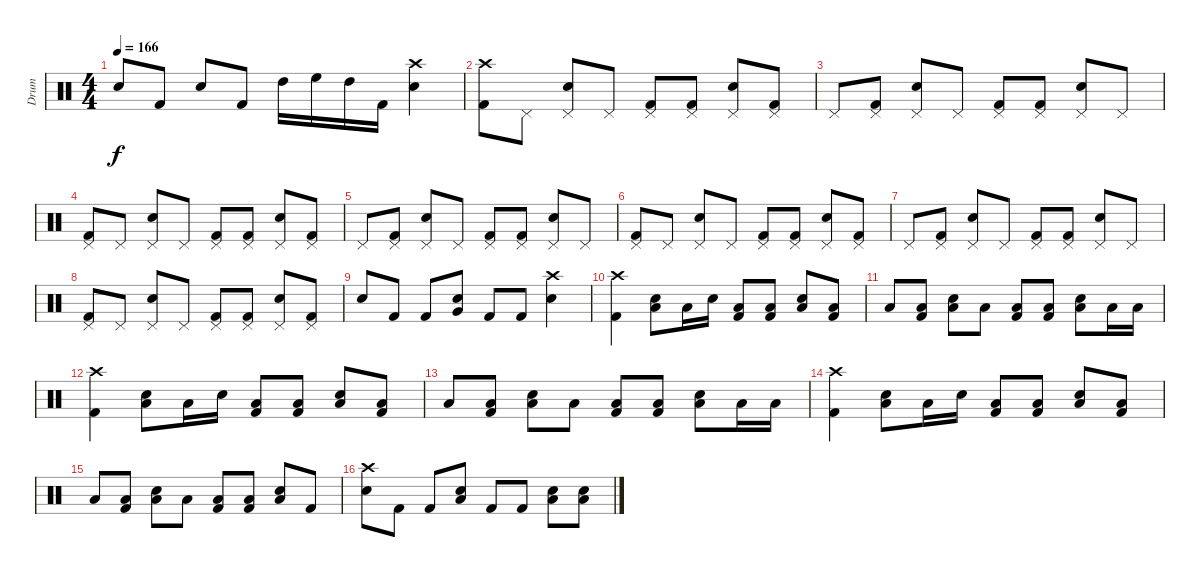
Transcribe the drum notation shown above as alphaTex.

\track ("Drum" "Drum") {instrument percussion}
\staff {score}
\articulation defaults
\ts (4 4)
\tempo 166
\clef neutral
\ks c "Electric Snare (hit)".8{dy f} "Kick (hit) 2".8 "Electric Snare (hit)".8 "Kick (hit) 2".8 "High Tom (hit)".16 "High Floor Tom (hit)".16 "High Tom (hit)".16 "Kick (hit) 2".16
("Crash high (hit)" "Electric Snare (hit)").4 |
("Crash high (hit)" "Kick (hit) 2").8 "Pedal Hi-Hat (hit)".8 ("Pedal Hi-Hat (hit)" "Electric Snare (hit)").8 "Pedal Hi-Hat (hit)".8 ("Pedal Hi-Hat (hit)" "Kick (hit) 2").8 ("Pedal Hi-Hat (hit)" "Kick (hit) 2").8 ("Pedal Hi-Hat (hit)" "Electric Snare (hit)").8 ("Pedal Hi-Hat (hit)" "Kick (hit) 2").8 |
"Pedal Hi-Hat (hit)".8 ("Pedal Hi-Hat (hit)" "Kick (hit) 2").8 ("Pedal Hi-Hat (hit)" "Electric Snare (hit)").8 "Pedal Hi-Hat (hit)".8 ("Pedal Hi-Hat (hit)" "Kick (hit) 2").8 ("Pedal Hi-Hat (hit)" "Kick (hit) 2").8 ("Pedal Hi-Hat (hit)" "Electric Snare (hit)").8 "Pedal Hi-Hat (hit)".8 |
("Pedal Hi-Hat (hit)" "Kick (hit) 2").8 "Pedal Hi-Hat (hit)".8 ("Pedal Hi-Hat (hit)" "Electric Snare (hit)").8 "Pedal Hi-Hat (hit)".8 ("Pedal Hi-Hat (hit)" "Kick (hit) 2").8 ("Pedal Hi-Hat (hit)" "Kick (hit) 2").8 ("Pedal Hi-Hat (hit)" "Electric Snare (hit)").8 ("Pedal Hi-Hat (hit)" "Kick (hit) 2").8 |
"Pedal Hi-Hat (hit)".8 ("Pedal Hi-Hat (hit)" "Kick (hit) 2").8 ("Pedal Hi-Hat (hit)" "Electric Snare (hit)").8 "Pedal Hi-Hat (hit)".8 ("Pedal Hi-Hat (hit)" "Kick (hit) 2").8 ("Pedal Hi-Hat (hit)" "Kick (hit) 2").8 ("Pedal Hi-Hat (hit)" "Electric Snare (hit)").8 "Pedal Hi-Hat (hit)".8 |
("Pedal Hi-Hat (hit)" "Kick (hit) 2").8 "Pedal Hi-Hat (hit)".8 ("Pedal Hi-Hat (hit)" "Electric Snare (hit)").8 "Pedal Hi-Hat (hit)".8 ("Pedal Hi-Hat (hit)" "Kick (hit) 2").8 ("Pedal Hi-Hat (hit)" "Kick (hit) 2").8 ("Pedal Hi-Hat (hit)" "Electric Snare (hit)").8 ("Pedal Hi-Hat (hit)" "Kick (hit) 2").8 |
"Pedal Hi-Hat (hit)".8 ("Pedal Hi-Hat (hit)" "Kick (hit) 2").8 ("Pedal Hi-Hat (hit)" "Electric Snare (hit)").8 "Pedal Hi-Hat (hit)".8 ("Pedal Hi-Hat (hit)" "Kick (hit) 2").8 ("Pedal Hi-Hat (hit)" "Kick (hit) 2").8 ("Pedal Hi-Hat (hit)" "Electric Snare (hit)").8 "Pedal Hi-Hat (hit)".8 |
("Pedal Hi-Hat (hit)" "Kick (hit) 2").8 "Pedal Hi-Hat (hit)".8 ("Pedal Hi-Hat (hit)" "Electric Snare (hit)").8 "Pedal Hi-Hat (hit)".8 ("Pedal Hi-Hat (hit)" "Kick (hit) 2").8 ("Pedal Hi-Hat (hit)" "Kick (hit) 2").8 ("Pedal Hi-Hat (hit)" "Electric Snare (hit)").8 ("Pedal Hi-Hat (hit)" "Kick (hit) 2").8 |
"Electric Snare (hit)".8 "Kick (hit) 2".8 "Kick (hit) 2".8 ("Electric Snare (hit)" "Very Low Tom (hit)").8 "Kick (hit) 2".8 "Kick (hit) 2".8 ("Crash high (hit)" "Electric Snare (hit)").4 |
("Crash high (hit)" "Kick (hit) 2").4 ("Low Tom (hit)" "Electric Snare (hit)").8 "Low Tom (hit)".16 "Electric Snare (hit)".16 ("Low Tom (hit)" "Kick (hit) 2").8 ("Low Tom (hit)" "Kick (hit) 2").8 ("Low Tom (hit)" "Electric Snare (hit)").8 ("Low Tom (hit)" "Kick (hit) 2").8 |
"Low Tom (hit)".8 ("Low Tom (hit)" "Kick (hit) 2").8 ("Low Tom (hit)" "Electric Snare (hit)").8 "Low Tom (hit)".8 ("Low Tom (hit)" "Kick (hit) 2").8 ("Low Tom (hit)" "Kick (hit) 2").8 ("Low Tom (hit)" "Electric Snare (hit)").8 "Low Tom (hit)".16 "Low Tom (hit)".16 |
("Crash high (hit)" "Kick (hit) 2").4 ("Low Tom (hit)" "Electric Snare (hit)").8 "Low Tom (hit)".16 "Electric Snare (hit)".16 ("Low Tom (hit)" "Kick (hit) 2").8 ("Low Tom (hit)" "Kick (hit) 2").8 ("Low Tom (hit)" "Electric Snare (hit)").8 ("Low Tom (hit)" "Kick (hit) 2").8 |
"Low Tom (hit)".8 ("Low Tom (hit)" "Kick (hit) 2").8 ("Low Tom (hit)" "Electric Snare (hit)").8 "Low Tom (hit)".8 ("Low Tom (hit)" "Kick (hit) 2").8 ("Low Tom (hit)" "Kick (hit) 2").8 ("Low Tom (hit)" "Electric Snare (hit)").8 "Low Tom (hit)".16 "Low Tom (hit)".16 |
("Crash high (hit)" "Kick (hit) 2").4 ("Low Tom (hit)" "Electric Snare (hit)").8 "Low Tom (hit)".16 "Electric Snare (hit)".16 ("Low Tom (hit)" "Kick (hit) 2").8 ("Low Tom (hit)" "Kick (hit) 2").8 ("Low Tom (hit)" "Electric Snare (hit)").8 ("Low Tom (hit)" "Kick (hit) 2").8 |
"Low Tom (hit)".8 ("Low Tom (hit)" "Kick (hit) 2").8 ("Low Tom (hit)" "Electric Snare (hit)").8 "Low Tom (hit)".8 ("Low Tom (hit)" "Kick (hit) 2").8 ("Low Tom (hit)" "Kick (hit) 2").8 ("Low Tom (hit)" "Electric Snare (hit)").8 "Kick (hit) 2".8 |
("Crash high (hit)" "Electric Snare (hit)").8 "Kick (hit) 2".8 "Kick (hit) 2".8 ("Low Tom (hit)" "Electric Snare (hit)").8 "Kick (hit) 2".8 "Kick (hit) 2".8 ("Low Tom (hit)" "Electric Snare (hit)").8 ("Low Tom (hit)" "Electric Snare (hit)").8
